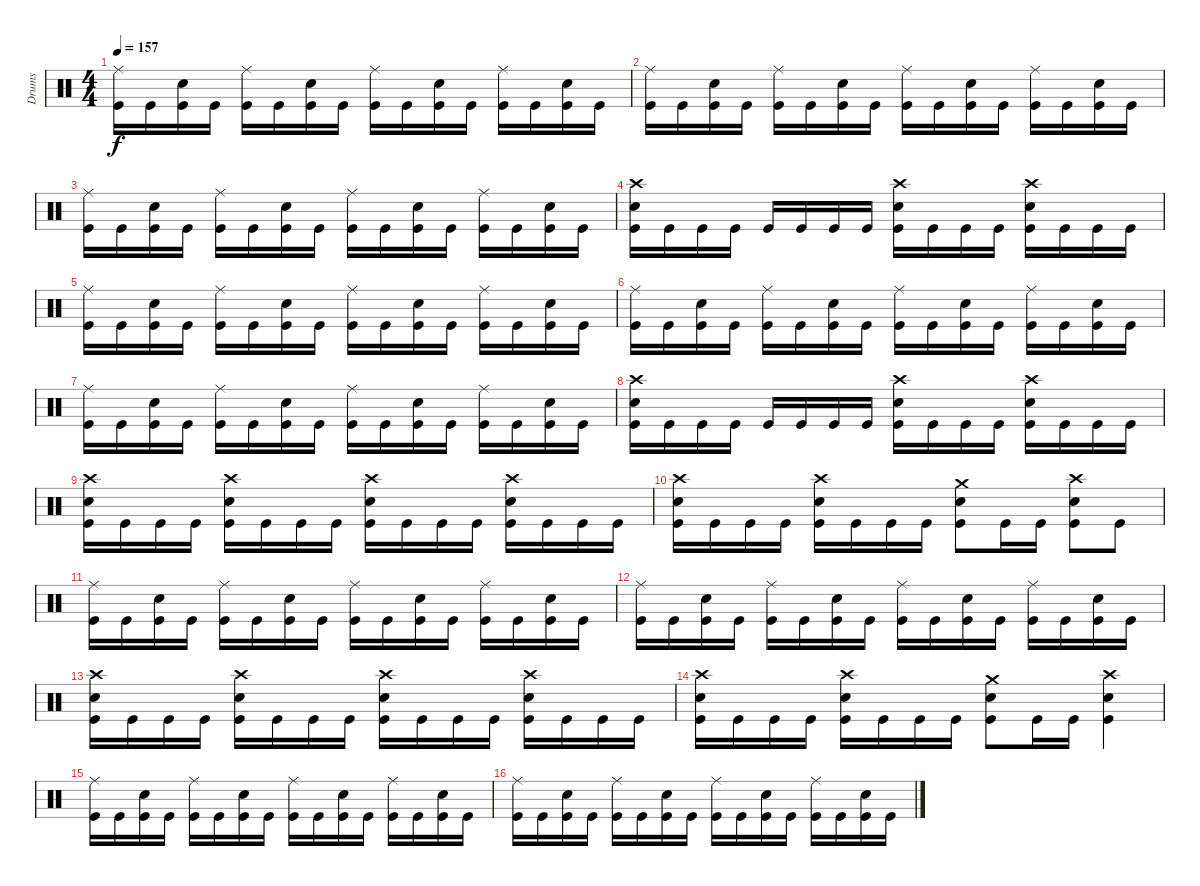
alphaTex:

\track ("Drums" "Drums") {instrument percussion}
\staff {score}
\articulation defaults
\ts (4 4)
\tempo 157
\clef neutral
\ks c
("Ride (middle)" "Kick (hit)").16{dy f} "Kick (hit)".16 ("Snare (hit) 2" "Kick (hit)").16 "Kick (hit)".16 ("Ride (middle)" "Kick (hit)").16 "Kick (hit)".16 ("Snare (hit) 2" "Kick (hit)").16 "Kick (hit)".16 ("Ride (middle)" "Kick (hit)").16 "Kick (hit)".16 ("Snare (hit) 2" "Kick (hit)").16 "Kick (hit)".16 ("Ride (middle)" "Kick (hit)").16 "Kick (hit)".16 ("Snare (hit) 2" "Kick (hit)").16 "Kick (hit)".16 |
("Ride (middle)" "Kick (hit)").16 "Kick (hit)".16 ("Snare (hit) 2" "Kick (hit)").16 "Kick (hit)".16 ("Ride (middle)" "Kick (hit)").16 "Kick (hit)".16 ("Snare (hit) 2" "Kick (hit)").16 "Kick (hit)".16 ("Ride (middle)" "Kick (hit)").16 "Kick (hit)".16 ("Snare (hit) 2" "Kick (hit)").16 "Kick (hit)".16 ("Ride (middle)" "Kick (hit)").16 "Kick (hit)".16 ("Snare (hit) 2" "Kick (hit)").16 "Kick (hit)".16 |
("Ride (middle)" "Kick (hit)").16 "Kick (hit)".16 ("Snare (hit) 2" "Kick (hit)").16 "Kick (hit)".16 ("Ride (middle)" "Kick (hit)").16 "Kick (hit)".16 ("Snare (hit) 2" "Kick (hit)").16 "Kick (hit)".16 ("Ride (middle)" "Kick (hit)").16 "Kick (hit)".16 ("Snare (hit) 2" "Kick (hit)").16 "Kick (hit)".16 ("Ride (middle)" "Kick (hit)").16 "Kick (hit)".16 ("Snare (hit) 2" "Kick (hit)").16 "Kick (hit)".16 |
("Snare (hit) 2" "Crash high (hit)" "Kick (hit)").16 "Kick (hit)".16 "Kick (hit)".16 "Kick (hit)".16 "Kick (hit)".16 "Kick (hit)".16 "Kick (hit)".16 "Kick (hit)".16 ("Snare (hit) 2" "Crash high (hit)" "Kick (hit)").16 "Kick (hit)".16 "Kick (hit)".16 "Kick (hit)".16 ("Snare (hit) 2" "Crash high (hit)" "Kick (hit)").16 "Kick (hit)".16 "Kick (hit)".16 "Kick (hit)".16 |
("Ride (middle)" "Kick (hit)").16 "Kick (hit)".16 ("Snare (hit) 2" "Kick (hit)").16 "Kick (hit)".16 ("Ride (middle)" "Kick (hit)").16 "Kick (hit)".16 ("Snare (hit) 2" "Kick (hit)").16 "Kick (hit)".16 ("Ride (middle)" "Kick (hit)").16 "Kick (hit)".16 ("Snare (hit) 2" "Kick (hit)").16 "Kick (hit)".16 ("Ride (middle)" "Kick (hit)").16 "Kick (hit)".16 ("Snare (hit) 2" "Kick (hit)").16 "Kick (hit)".16 |
("Ride (middle)" "Kick (hit)").16 "Kick (hit)".16 ("Snare (hit) 2" "Kick (hit)").16 "Kick (hit)".16 ("Ride (middle)" "Kick (hit)").16 "Kick (hit)".16 ("Snare (hit) 2" "Kick (hit)").16 "Kick (hit)".16 ("Ride (middle)" "Kick (hit)").16 "Kick (hit)".16 ("Snare (hit) 2" "Kick (hit)").16 "Kick (hit)".16 ("Ride (middle)" "Kick (hit)").16 "Kick (hit)".16 ("Snare (hit) 2" "Kick (hit)").16 "Kick (hit)".16 |
("Ride (middle)" "Kick (hit)").16 "Kick (hit)".16 ("Snare (hit) 2" "Kick (hit)").16 "Kick (hit)".16 ("Ride (middle)" "Kick (hit)").16 "Kick (hit)".16 ("Snare (hit) 2" "Kick (hit)").16 "Kick (hit)".16 ("Ride (middle)" "Kick (hit)").16 "Kick (hit)".16 ("Snare (hit) 2" "Kick (hit)").16 "Kick (hit)".16 ("Ride (middle)" "Kick (hit)").16 "Kick (hit)".16 ("Snare (hit) 2" "Kick (hit)").16 "Kick (hit)".16 |
("Snare (hit) 2" "Crash high (hit)" "Kick (hit)").16 "Kick (hit)".16 "Kick (hit)".16 "Kick (hit)".16 "Kick (hit)".16 "Kick (hit)".16 "Kick (hit)".16 "Kick (hit)".16 ("Snare (hit) 2" "Crash high (hit)" "Kick (hit)").16 "Kick (hit)".16 "Kick (hit)".16 "Kick (hit)".16 ("Snare (hit) 2" "Crash high (hit)" "Kick (hit)").16 "Kick (hit)".16 "Kick (hit)".16 "Kick (hit)".16 |
("Snare (hit) 2" "Crash high (hit)" "Kick (hit)").16 "Kick (hit)".16 "Kick (hit)".16 "Kick (hit)".16 ("Snare (hit) 2" "Crash high (hit)" "Kick (hit)").16 "Kick (hit)".16 "Kick (hit)".16 "Kick (hit)".16 ("Snare (hit) 2" "Crash high (hit)" "Kick (hit)").16 "Kick (hit)".16 "Kick (hit)".16 "Kick (hit)".16 ("Snare (hit) 2" "Crash high (hit)" "Kick (hit)").16 "Kick (hit)".16 "Kick (hit)".16 "Kick (hit)".16 |
("Snare (hit) 2" "Crash high (hit)" "Kick (hit)").16 "Kick (hit)".16 "Kick (hit)".16 "Kick (hit)".16 ("Snare (hit) 2" "Crash high (hit)" "Kick (hit)").16 "Kick (hit)".16 "Kick (hit)".16 "Kick (hit)".16 ("Snare (hit) 2" "Crash medium (hit)" "Kick (hit)").8 "Kick (hit)".16 "Kick (hit)".16 ("Snare (hit) 2" "Crash high (hit)" "Kick (hit)").8 "Kick (hit)".8 |
("Ride (middle)" "Kick (hit)").16 "Kick (hit)".16 ("Snare (hit) 2" "Kick (hit)").16 "Kick (hit)".16 ("Ride (middle)" "Kick (hit)").16 "Kick (hit)".16 ("Snare (hit) 2" "Kick (hit)").16 "Kick (hit)".16 ("Ride (middle)" "Kick (hit)").16 "Kick (hit)".16 ("Snare (hit) 2" "Kick (hit)").16 "Kick (hit)".16 ("Ride (middle)" "Kick (hit)").16 "Kick (hit)".16 ("Snare (hit) 2" "Kick (hit)").16 "Kick (hit)".16 |
("Ride (middle)" "Kick (hit)").16 "Kick (hit)".16 ("Snare (hit) 2" "Kick (hit)").16 "Kick (hit)".16 ("Ride (middle)" "Kick (hit)").16 "Kick (hit)".16 ("Snare (hit) 2" "Kick (hit)").16 "Kick (hit)".16 ("Ride (middle)" "Kick (hit)").16 "Kick (hit)".16 ("Snare (hit) 2" "Kick (hit)").16 "Kick (hit)".16 ("Ride (middle)" "Kick (hit)").16 "Kick (hit)".16 ("Snare (hit) 2" "Kick (hit)").16 "Kick (hit)".16 |
("Snare (hit) 2" "Crash high (hit)" "Kick (hit)").16 "Kick (hit)".16 "Kick (hit)".16 "Kick (hit)".16 ("Snare (hit) 2" "Crash high (hit)" "Kick (hit)").16 "Kick (hit)".16 "Kick (hit)".16 "Kick (hit)".16 ("Snare (hit) 2" "Crash high (hit)" "Kick (hit)").16 "Kick (hit)".16 "Kick (hit)".16 "Kick (hit)".16 ("Snare (hit) 2" "Crash high (hit)" "Kick (hit)").16 "Kick (hit)".16 "Kick (hit)".16 "Kick (hit)".16 |
("Snare (hit) 2" "Crash high (hit)" "Kick (hit)").16 "Kick (hit)".16 "Kick (hit)".16 "Kick (hit)".16 ("Snare (hit) 2" "Crash high (hit)" "Kick (hit)").16 "Kick (hit)".16 "Kick (hit)".16 "Kick (hit)".16 ("Snare (hit) 2" "Crash medium (hit)" "Kick (hit)").8 "Kick (hit)".16 "Kick (hit)".16 ("Snare (hit) 2" "Crash high (hit)" "Kick (hit)").4 |
("Ride (middle)" "Kick (hit)").16 "Kick (hit)".16 ("Snare (hit) 2" "Kick (hit)").16 "Kick (hit)".16 ("Ride (middle)" "Kick (hit)").16 "Kick (hit)".16 ("Snare (hit) 2" "Kick (hit)").16 "Kick (hit)".16 ("Ride (middle)" "Kick (hit)").16 "Kick (hit)".16 ("Snare (hit) 2" "Kick (hit)").16 "Kick (hit)".16 ("Ride (middle)" "Kick (hit)").16 "Kick (hit)".16 ("Snare (hit) 2" "Kick (hit)").16 "Kick (hit)".16 |
("Ride (middle)" "Kick (hit)").16 "Kick (hit)".16 ("Snare (hit) 2" "Kick (hit)").16 "Kick (hit)".16 ("Ride (middle)" "Kick (hit)").16 "Kick (hit)".16 ("Snare (hit) 2" "Kick (hit)").16 "Kick (hit)".16 ("Ride (middle)" "Kick (hit)").16 "Kick (hit)".16 ("Snare (hit) 2" "Kick (hit)").16 "Kick (hit)".16 ("Ride (middle)" "Kick (hit)").16 "Kick (hit)".16 ("Snare (hit) 2" "Kick (hit)").16 "Kick (hit)".16
